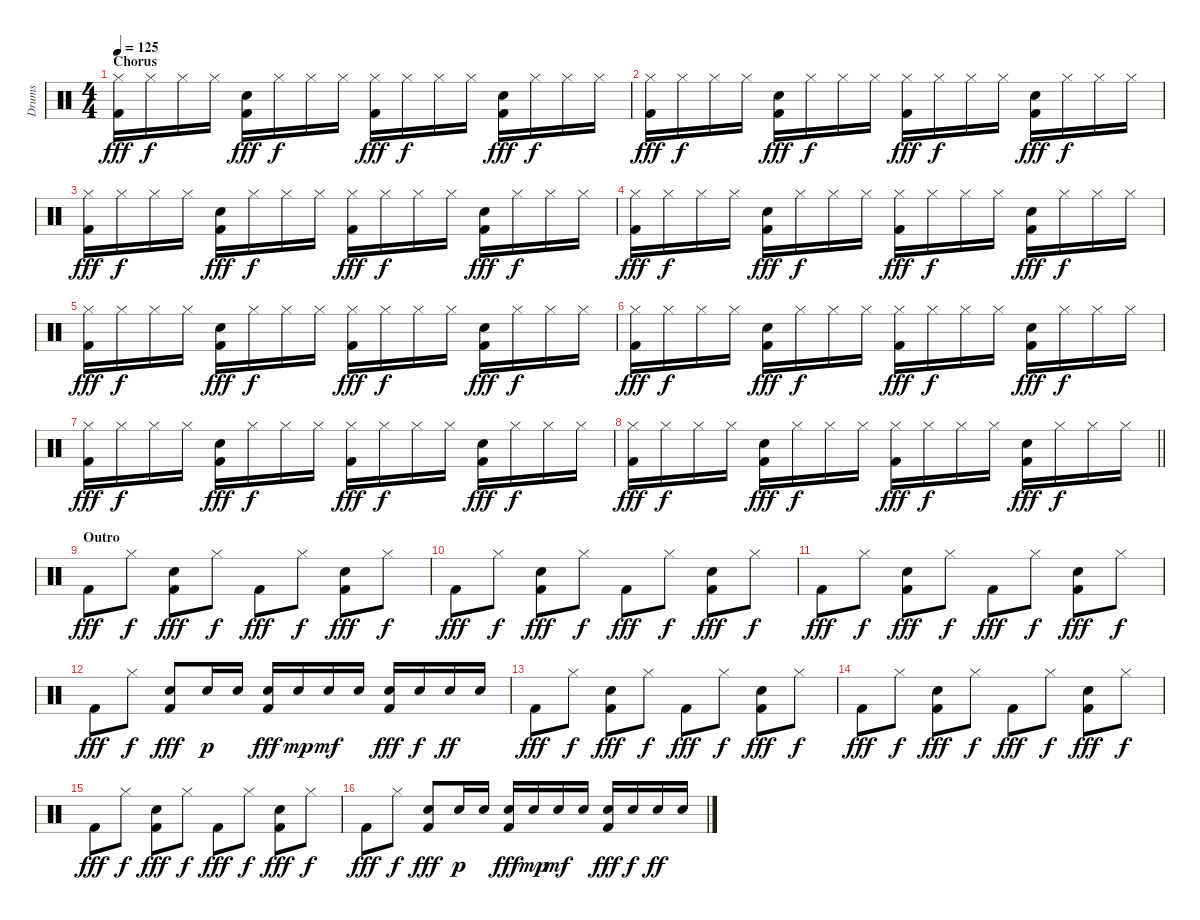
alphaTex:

\track ("Drums" "Drums") {instrument percussion}
\staff {score}
\articulation defaults
\ts (4 4)
\section ("" "Chorus")
\tempo 125
\clef neutral
\ks c
("Hi-Hat (closed)" "Kick (hit) 2").16{dy fff} "Hi-Hat (closed)".16{dy f} "Hi-Hat (closed)".16 "Hi-Hat (closed)".16 ("Snare (hit) 2" "Kick (hit) 2").16{dy fff} "Hi-Hat (closed)".16{dy f} "Hi-Hat (closed)".16 "Hi-Hat (closed)".16 ("Hi-Hat (closed)" "Kick (hit) 2").16{dy fff} "Hi-Hat (closed)".16{dy f} "Hi-Hat (closed)".16 "Hi-Hat (closed)".16 ("Snare (hit) 2" "Kick (hit) 2").16{dy fff} "Hi-Hat (closed)".16{dy f} "Hi-Hat (closed)".16 "Hi-Hat (closed)".16 |
("Hi-Hat (closed)" "Kick (hit) 2").16{dy fff} "Hi-Hat (closed)".16{dy f} "Hi-Hat (closed)".16 "Hi-Hat (closed)".16 ("Snare (hit) 2" "Kick (hit) 2").16{dy fff} "Hi-Hat (closed)".16{dy f} "Hi-Hat (closed)".16 "Hi-Hat (closed)".16 ("Hi-Hat (closed)" "Kick (hit) 2").16{dy fff} "Hi-Hat (closed)".16{dy f} "Hi-Hat (closed)".16 "Hi-Hat (closed)".16 ("Snare (hit) 2" "Kick (hit) 2").16{dy fff} "Hi-Hat (closed)".16{dy f} "Hi-Hat (closed)".16 "Hi-Hat (closed)".16 |
("Hi-Hat (closed)" "Kick (hit) 2").16{dy fff} "Hi-Hat (closed)".16{dy f} "Hi-Hat (closed)".16 "Hi-Hat (closed)".16 ("Snare (hit) 2" "Kick (hit) 2").16{dy fff} "Hi-Hat (closed)".16{dy f} "Hi-Hat (closed)".16 "Hi-Hat (closed)".16 ("Hi-Hat (closed)" "Kick (hit) 2").16{dy fff} "Hi-Hat (closed)".16{dy f} "Hi-Hat (closed)".16 "Hi-Hat (closed)".16 ("Snare (hit) 2" "Kick (hit) 2").16{dy fff} "Hi-Hat (closed)".16{dy f} "Hi-Hat (closed)".16 "Hi-Hat (closed)".16 |
("Hi-Hat (closed)" "Kick (hit) 2").16{dy fff} "Hi-Hat (closed)".16{dy f} "Hi-Hat (closed)".16 "Hi-Hat (closed)".16 ("Snare (hit) 2" "Kick (hit) 2").16{dy fff} "Hi-Hat (closed)".16{dy f} "Hi-Hat (closed)".16 "Hi-Hat (closed)".16 ("Hi-Hat (closed)" "Kick (hit) 2").16{dy fff} "Hi-Hat (closed)".16{dy f} "Hi-Hat (closed)".16 "Hi-Hat (closed)".16 ("Snare (hit) 2" "Kick (hit) 2").16{dy fff} "Hi-Hat (closed)".16{dy f} "Hi-Hat (closed)".16 "Hi-Hat (closed)".16 |
("Hi-Hat (closed)" "Kick (hit) 2").16{dy fff} "Hi-Hat (closed)".16{dy f} "Hi-Hat (closed)".16 "Hi-Hat (closed)".16 ("Snare (hit) 2" "Kick (hit) 2").16{dy fff} "Hi-Hat (closed)".16{dy f} "Hi-Hat (closed)".16 "Hi-Hat (closed)".16 ("Hi-Hat (closed)" "Kick (hit) 2").16{dy fff} "Hi-Hat (closed)".16{dy f} "Hi-Hat (closed)".16 "Hi-Hat (closed)".16 ("Snare (hit) 2" "Kick (hit) 2").16{dy fff} "Hi-Hat (closed)".16{dy f} "Hi-Hat (closed)".16 "Hi-Hat (closed)".16 |
("Hi-Hat (closed)" "Kick (hit) 2").16{dy fff} "Hi-Hat (closed)".16{dy f} "Hi-Hat (closed)".16 "Hi-Hat (closed)".16 ("Snare (hit) 2" "Kick (hit) 2").16{dy fff} "Hi-Hat (closed)".16{dy f} "Hi-Hat (closed)".16 "Hi-Hat (closed)".16 ("Hi-Hat (closed)" "Kick (hit) 2").16{dy fff} "Hi-Hat (closed)".16{dy f} "Hi-Hat (closed)".16 "Hi-Hat (closed)".16 ("Snare (hit) 2" "Kick (hit) 2").16{dy fff} "Hi-Hat (closed)".16{dy f} "Hi-Hat (closed)".16 "Hi-Hat (closed)".16 |
("Hi-Hat (closed)" "Kick (hit) 2").16{dy fff} "Hi-Hat (closed)".16{dy f} "Hi-Hat (closed)".16 "Hi-Hat (closed)".16 ("Snare (hit) 2" "Kick (hit) 2").16{dy fff} "Hi-Hat (closed)".16{dy f} "Hi-Hat (closed)".16 "Hi-Hat (closed)".16 ("Hi-Hat (closed)" "Kick (hit) 2").16{dy fff} "Hi-Hat (closed)".16{dy f} "Hi-Hat (closed)".16 "Hi-Hat (closed)".16 ("Snare (hit) 2" "Kick (hit) 2").16{dy fff} "Hi-Hat (closed)".16{dy f} "Hi-Hat (closed)".16 "Hi-Hat (closed)".16 |
\barLineRight lightlight
("Hi-Hat (closed)" "Kick (hit) 2").16{dy fff} "Hi-Hat (closed)".16{dy f} "Hi-Hat (closed)".16 "Hi-Hat (closed)".16 ("Snare (hit) 2" "Kick (hit) 2").16{dy fff} "Hi-Hat (closed)".16{dy f} "Hi-Hat (closed)".16 "Hi-Hat (closed)".16 ("Hi-Hat (closed)" "Kick (hit) 2").16{dy fff} "Hi-Hat (closed)".16{dy f} "Hi-Hat (closed)".16 "Hi-Hat (closed)".16 ("Snare (hit) 2" "Kick (hit) 2").16{dy fff} "Hi-Hat (closed)".16{dy f} "Hi-Hat (closed)".16 "Hi-Hat (closed)".16 |
\section ("" "Outro")
"Kick (hit) 2".8{dy fff} "Hi-Hat (closed)".8{dy f} ("Snare (hit) 2" "Kick (hit) 2").8{dy fff} "Hi-Hat (closed)".8{dy f} "Kick (hit) 2".8{dy fff} "Hi-Hat (closed)".8{dy f} ("Snare (hit) 2" "Kick (hit) 2").8{dy fff} "Hi-Hat (closed)".8{dy f} |
"Kick (hit) 2".8{dy fff} "Hi-Hat (closed)".8{dy f} ("Snare (hit) 2" "Kick (hit) 2").8{dy fff} "Hi-Hat (closed)".8{dy f} "Kick (hit) 2".8{dy fff} "Hi-Hat (closed)".8{dy f} ("Snare (hit) 2" "Kick (hit) 2").8{dy fff} "Hi-Hat (closed)".8{dy f} |
"Kick (hit) 2".8{dy fff} "Hi-Hat (closed)".8{dy f} ("Snare (hit) 2" "Kick (hit) 2").8{dy fff} "Hi-Hat (closed)".8{dy f} "Kick (hit) 2".8{dy fff} "Hi-Hat (closed)".8{dy f} ("Snare (hit) 2" "Kick (hit) 2").8{dy fff} "Hi-Hat (closed)".8{dy f} |
"Kick (hit) 2".8{dy fff} "Hi-Hat (closed)".8{dy f} ("Snare (hit) 2" "Kick (hit) 2").8{dy fff} "Snare (hit) 2".16{dy p} "Snare (hit) 2".16 ("Snare (hit) 2" "Kick (hit) 2").16{dy fff} "Snare (hit) 2".16{dy mp} "Snare (hit) 2".16{dy mf} "Snare (hit) 2".16 ("Snare (hit) 2" "Kick (hit) 2").16{dy fff} "Snare (hit) 2".16{dy f} "Snare (hit) 2".16{dy ff} "Snare (hit) 2".16 |
"Kick (hit) 2".8{dy fff} "Hi-Hat (closed)".8{dy f} ("Snare (hit) 2" "Kick (hit) 2").8{dy fff} "Hi-Hat (closed)".8{dy f} "Kick (hit) 2".8{dy fff} "Hi-Hat (closed)".8{dy f} ("Snare (hit) 2" "Kick (hit) 2").8{dy fff} "Hi-Hat (closed)".8{dy f} |
"Kick (hit) 2".8{dy fff} "Hi-Hat (closed)".8{dy f} ("Snare (hit) 2" "Kick (hit) 2").8{dy fff} "Hi-Hat (closed)".8{dy f} "Kick (hit) 2".8{dy fff} "Hi-Hat (closed)".8{dy f} ("Snare (hit) 2" "Kick (hit) 2").8{dy fff} "Hi-Hat (closed)".8{dy f} |
"Kick (hit) 2".8{dy fff} "Hi-Hat (closed)".8{dy f} ("Snare (hit) 2" "Kick (hit) 2").8{dy fff} "Hi-Hat (closed)".8{dy f} "Kick (hit) 2".8{dy fff} "Hi-Hat (closed)".8{dy f} ("Snare (hit) 2" "Kick (hit) 2").8{dy fff} "Hi-Hat (closed)".8{dy f} |
"Kick (hit) 2".8{dy fff} "Hi-Hat (closed)".8{dy f} ("Snare (hit) 2" "Kick (hit) 2").8{dy fff} "Snare (hit) 2".16{dy p} "Snare (hit) 2".16 ("Snare (hit) 2" "Kick (hit) 2").16{dy fff} "Snare (hit) 2".16{dy mp} "Snare (hit) 2".16{dy mf} "Snare (hit) 2".16 ("Snare (hit) 2" "Kick (hit) 2").16{dy fff} "Snare (hit) 2".16{dy f} "Snare (hit) 2".16{dy ff} "Snare (hit) 2".16
